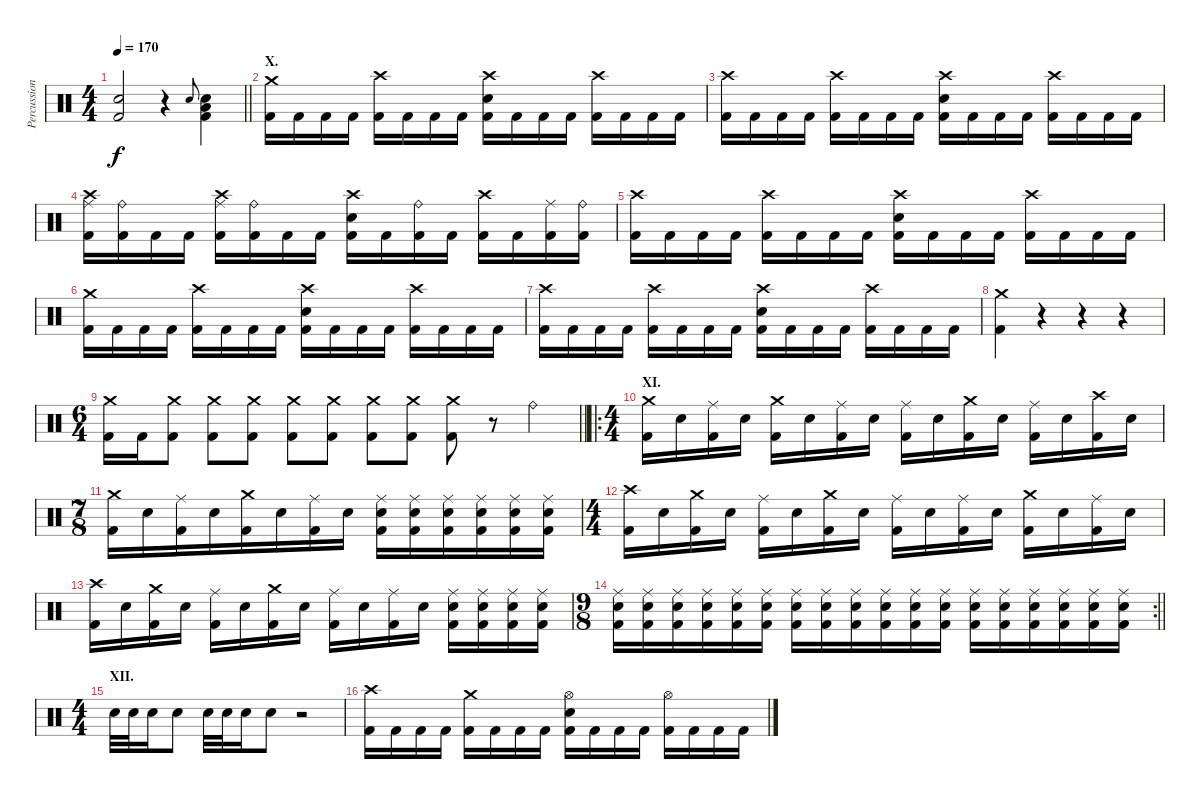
\track ("Percussion" "Percussion") {instrument percussion}
\staff {score}
\articulation defaults
\ts (4 4)
\tempo 170
\clef neutral
\barLineRight lightlight
\ks c
("Electric Snare (hit)" "Kick (hit) 2").2{dy f} r.4 "Electric Snare (hit)".8{gr onbeat} ("Electric Snare (hit)" "Low Floor Tom (hit)" "Kick (hit) 2").4 |
\section ("" "X.")
("Crash medium (hit)" "Kick (hit) 2").16 "Kick (hit) 2".16 "Kick (hit) 2".16 "Kick (hit) 2".16 ("Crash high (hit)" "Kick (hit) 2").16 "Kick (hit) 2".16 "Kick (hit) 2".16 "Kick (hit) 2".16 ("Crash high (hit)" "Electric Snare (hit)" "Kick (hit) 2").16 "Kick (hit) 2".16 "Kick (hit) 2".16 "Kick (hit) 2".16 ("Crash high (hit)" "Kick (hit) 2").16 "Kick (hit) 2".16 "Kick (hit) 2".16 "Kick (hit) 2".16 |
("Crash high (hit)" "Kick (hit) 2").16 "Kick (hit) 2".16 "Kick (hit) 2".16 "Kick (hit) 2".16 ("Crash high (hit)" "Kick (hit) 2").16 "Kick (hit) 2".16 "Kick (hit) 2".16 "Kick (hit) 2".16 ("Crash high (hit)" "Electric Snare (hit)" "Kick (hit) 2").16 "Kick (hit) 2".16 "Kick (hit) 2".16 "Kick (hit) 2".16 ("Crash high (hit)" "Kick (hit) 2").16 "Kick (hit) 2".16 "Kick (hit) 2".16 "Kick (hit) 2".16 |
("Crash high (hit)" "Ride (middle)" "Kick (hit) 2").16 ("Ride (bell)" "Kick (hit) 2").16 "Kick (hit) 2".16 "Kick (hit) 2".16 ("Crash high (hit)" "Ride (middle)" "Kick (hit) 2").16 ("Ride (bell)" "Kick (hit) 2").16 "Kick (hit) 2".16 "Kick (hit) 2".16 ("Crash high (hit)" "Electric Snare (hit)" "Kick (hit) 2").16 "Kick (hit) 2".16 ("Ride (bell)" "Kick (hit) 2").16 "Kick (hit) 2".16 ("Crash high (hit)" "Kick (hit) 2").16 "Kick (hit) 2".16 ("Ride (middle)" "Kick (hit) 2").16 ("Ride (bell)" "Kick (hit) 2").16 |
("Crash high (hit)" "Kick (hit) 2").16 "Kick (hit) 2".16 "Kick (hit) 2".16 "Kick (hit) 2".16 ("Crash high (hit)" "Kick (hit) 2").16 "Kick (hit) 2".16 "Kick (hit) 2".16 "Kick (hit) 2".16 ("Crash high (hit)" "Electric Snare (hit)" "Kick (hit) 2").16 "Kick (hit) 2".16 "Kick (hit) 2".16 "Kick (hit) 2".16 ("Crash high (hit)" "Kick (hit) 2").16 "Kick (hit) 2".16 "Kick (hit) 2".16 "Kick (hit) 2".16 |
("Crash medium (hit)" "Kick (hit) 2").16 "Kick (hit) 2".16 "Kick (hit) 2".16 "Kick (hit) 2".16 ("Crash high (hit)" "Kick (hit) 2").16 "Kick (hit) 2".16 "Kick (hit) 2".16 "Kick (hit) 2".16 ("Crash high (hit)" "Electric Snare (hit)" "Kick (hit) 2").16 "Kick (hit) 2".16 "Kick (hit) 2".16 "Kick (hit) 2".16 ("Crash high (hit)" "Kick (hit) 2").16 "Kick (hit) 2".16 "Kick (hit) 2".16 "Kick (hit) 2".16 |
("Crash high (hit)" "Kick (hit) 2").16 "Kick (hit) 2".16 "Kick (hit) 2".16 "Kick (hit) 2".16 ("Crash high (hit)" "Kick (hit) 2").16 "Kick (hit) 2".16 "Kick (hit) 2".16 "Kick (hit) 2".16 ("Crash high (hit)" "Electric Snare (hit)" "Kick (hit) 2").16 "Kick (hit) 2".16 "Kick (hit) 2".16 "Kick (hit) 2".16 ("Crash high (hit)" "Kick (hit) 2").16 "Kick (hit) 2".16 "Kick (hit) 2".16 "Kick (hit) 2".16 |
("Crash medium (hit)" "Kick (hit) 2").4 r.4{volume 0} r.4 r.4 |
\ts (6 4)
\barLineRight lightlight
("Crash medium (hit)" "Kick (hit) 2").16{volume 12} "Kick (hit) 2".16 ("Crash medium (hit)" "Kick (hit) 2").8 ("Crash medium (hit)" "Kick (hit) 2").8 ("Crash medium (hit)" "Kick (hit) 2").8 ("Crash medium (hit)" "Kick (hit) 2").8 ("Crash medium (hit)" "Kick (hit) 2").8 ("Crash medium (hit)" "Kick (hit) 2").8 ("Crash medium (hit)" "Kick (hit) 2").8 ("Crash medium (hit)" "Kick (hit) 2").8 r.8 "Ride (bell)".4 |
\ro
\ts (4 4)
\section ("" "XI.")
("Crash medium (hit)" "Kick (hit) 2").16 "Electric Snare (hit)".16 ("Ride (middle)" "Kick (hit) 2").16 "Electric Snare (hit)".16 ("Crash medium (hit)" "Kick (hit) 2").16 "Electric Snare (hit)".16 ("Ride (middle)" "Kick (hit) 2").16 "Electric Snare (hit)".16 ("Ride (middle)" "Kick (hit) 2").16 "Electric Snare (hit)".16 ("Crash medium (hit)" "Kick (hit) 2").16 "Electric Snare (hit)".16 ("Ride (middle)" "Kick (hit) 2").16 "Electric Snare (hit)".16 ("Crash high (hit)" "Kick (hit) 2").16 "Electric Snare (hit)".16 |
\ts (7 8)
("Crash medium (hit)" "Kick (hit) 2").16 "Electric Snare (hit)".16 ("Ride (middle)" "Kick (hit) 2").16 "Electric Snare (hit)".16 ("Crash medium (hit)" "Kick (hit) 2").16 "Electric Snare (hit)".16 ("Ride (middle)" "Kick (hit) 2").16 "Electric Snare (hit)".16 ("Ride (middle)" "Electric Snare (hit)" "Kick (hit) 2").16 ("Ride (middle)" "Electric Snare (hit)" "Kick (hit) 2").16 ("Ride (middle)" "Electric Snare (hit)" "Kick (hit) 2").16 ("Ride (middle)" "Electric Snare (hit)" "Kick (hit) 2").16 ("Ride (middle)" "Electric Snare (hit)" "Kick (hit) 2").16 ("Ride (middle)" "Electric Snare (hit)" "Kick (hit) 2").16 |
\ts (4 4)
("Crash high (hit)" "Kick (hit) 2").16 "Electric Snare (hit)".16 ("Crash medium (hit)" "Kick (hit) 2").16 "Electric Snare (hit)".16 ("Ride (middle)" "Kick (hit) 2").16 "Electric Snare (hit)".16 ("Crash medium (hit)" "Kick (hit) 2").16 "Electric Snare (hit)".16 ("Ride (middle)" "Kick (hit) 2").16 "Electric Snare (hit)".16 ("Ride (middle)" "Kick (hit) 2").16 "Electric Snare (hit)".16 ("Crash medium (hit)" "Kick (hit) 2").16 "Electric Snare (hit)".16 ("Ride (middle)" "Kick (hit) 2").16 "Electric Snare (hit)".16 |
("Crash high (hit)" "Kick (hit) 2").16 "Electric Snare (hit)".16 ("Crash medium (hit)" "Kick (hit) 2").16 "Electric Snare (hit)".16 ("Ride (middle)" "Kick (hit) 2").16 "Electric Snare (hit)".16 ("Crash medium (hit)" "Kick (hit) 2").16 "Electric Snare (hit)".16 ("Ride (middle)" "Kick (hit) 2").16 "Electric Snare (hit)".16 ("Ride (middle)" "Kick (hit) 2").16 "Electric Snare (hit)".16 ("Ride (middle)" "Electric Snare (hit)" "Kick (hit) 2").16 ("Ride (middle)" "Electric Snare (hit)" "Kick (hit) 2").16 ("Ride (middle)" "Electric Snare (hit)" "Kick (hit) 2").16 ("Ride (middle)" "Electric Snare (hit)" "Kick (hit) 2").16 |
\rc 2
\ts (9 8)
\barLineRight lightlight
("Ride (middle)" "Electric Snare (hit)" "Kick (hit) 2").16 ("Ride (middle)" "Electric Snare (hit)" "Kick (hit) 2").16 ("Ride (middle)" "Electric Snare (hit)" "Kick (hit) 2").16 ("Ride (middle)" "Electric Snare (hit)" "Kick (hit) 2").16 ("Ride (middle)" "Electric Snare (hit)" "Kick (hit) 2").16 ("Ride (middle)" "Electric Snare (hit)" "Kick (hit) 2").16 ("Ride (middle)" "Electric Snare (hit)" "Kick (hit) 2").16 ("Ride (middle)" "Electric Snare (hit)" "Kick (hit) 2").16 ("Ride (middle)" "Electric Snare (hit)" "Kick (hit) 2").16 ("Ride (middle)" "Electric Snare (hit)" "Kick (hit) 2").16 ("Ride (middle)" "Electric Snare (hit)" "Kick (hit) 2").16 ("Ride (middle)" "Electric Snare (hit)" "Kick (hit) 2").16 ("Ride (middle)" "Electric Snare (hit)" "Kick (hit) 2").16 ("Ride (middle)" "Electric Snare (hit)" "Kick (hit) 2").16 ("Ride (middle)" "Electric Snare (hit)" "Kick (hit) 2").16 ("Ride (middle)" "Electric Snare (hit)" "Kick (hit) 2").16 ("Ride (middle)" "Electric Snare (hit)" "Kick (hit) 2").16 ("Ride (middle)" "Electric Snare (hit)" "Kick (hit) 2").16 |
\ts (4 4)
\section ("" "XII.")
"Electric Snare (hit)".32 "Electric Snare (hit)".32 "Electric Snare (hit)".16 "Electric Snare (hit)".8 "Electric Snare (hit)".32 "Electric Snare (hit)".32 "Electric Snare (hit)".16 "Electric Snare (hit)".8 r.2 |
("Crash high (hit)" "Kick (hit) 2").16 "Kick (hit) 2".16 "Kick (hit) 2".16 "Kick (hit) 2".16 ("Crash medium (hit)" "Kick (hit) 2").16 "Kick (hit) 2".16 "Kick (hit) 2".16 "Kick (hit) 2".16 ("Hi-Hat (open)" "Electric Snare (hit)" "Kick (hit) 2").16 "Kick (hit) 2".16 "Kick (hit) 2".16 "Kick (hit) 2".16 ("Hi-Hat (open)" "Kick (hit) 2").16 "Kick (hit) 2".16 "Kick (hit) 2".16 "Kick (hit) 2".16
